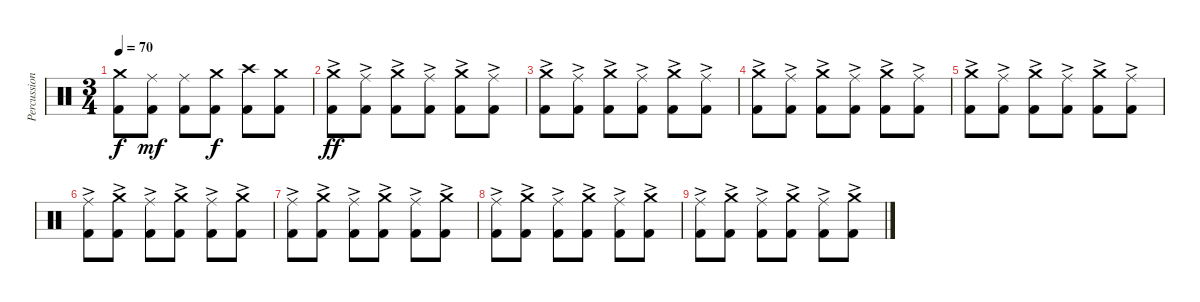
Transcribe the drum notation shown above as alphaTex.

\track ("Percussion" "Percussion") {instrument percussion}
\staff {score}
\articulation defaults
\ts (3 4)
\tempo 70
\clef neutral
\ks c
("Crash medium (hit)" "Kick (hit) 2").8{dy f} ("Ride (middle)" "Kick (hit) 2").8{dy mf} ("Ride (middle)" "Kick (hit) 2").8 ("Crash medium (hit)" "Kick (hit) 2").8{dy f} ("Crash high (hit)" "Kick (hit) 2").8 ("Crash medium (hit)" "Kick (hit) 2").8 |
("Crash medium (hit)" "Kick (hit) 2"{ac}).8{dy ff} ("Ride (middle)" "Kick (hit) 2"{ac}).8 ("Crash medium (hit)" "Kick (hit) 2"{ac}).8 ("Ride (middle)" "Kick (hit) 2"{ac}).8 ("Crash medium (hit)" "Kick (hit) 2"{ac}).8 ("Ride (middle)" "Kick (hit) 2"{ac}).8 |
("Crash medium (hit)" "Kick (hit) 2"{ac}).8 ("Ride (middle)" "Kick (hit) 2"{ac}).8 ("Crash medium (hit)" "Kick (hit) 2"{ac}).8 ("Ride (middle)" "Kick (hit) 2"{ac}).8 ("Crash medium (hit)" "Kick (hit) 2"{ac}).8 ("Ride (middle)" "Kick (hit) 2"{ac}).8 |
("Crash medium (hit)" "Kick (hit) 2"{ac}).8 ("Ride (middle)" "Kick (hit) 2"{ac}).8 ("Crash medium (hit)" "Kick (hit) 2"{ac}).8 ("Ride (middle)" "Kick (hit) 2"{ac}).8 ("Crash medium (hit)" "Kick (hit) 2"{ac}).8 ("Ride (middle)" "Kick (hit) 2"{ac}).8 |
("Crash medium (hit)" "Kick (hit) 2"{ac}).8 ("Ride (middle)" "Kick (hit) 2"{ac}).8 ("Crash medium (hit)" "Kick (hit) 2"{ac}).8 ("Ride (middle)" "Kick (hit) 2"{ac}).8 ("Crash medium (hit)" "Kick (hit) 2"{ac}).8 ("Ride (middle)" "Kick (hit) 2"{ac}).8 |
("Ride (middle)" "Kick (hit) 2"{ac}).8 ("Crash medium (hit)" "Kick (hit) 2"{ac}).8 ("Ride (middle)" "Kick (hit) 2"{ac}).8 ("Crash medium (hit)" "Kick (hit) 2"{ac}).8 ("Ride (middle)" "Kick (hit) 2"{ac}).8 ("Crash medium (hit)" "Kick (hit) 2"{ac}).8 |
("Ride (middle)" "Kick (hit) 2"{ac}).8 ("Crash medium (hit)" "Kick (hit) 2"{ac}).8 ("Ride (middle)" "Kick (hit) 2"{ac}).8 ("Crash medium (hit)" "Kick (hit) 2"{ac}).8 ("Ride (middle)" "Kick (hit) 2"{ac}).8 ("Crash medium (hit)" "Kick (hit) 2"{ac}).8 |
("Ride (middle)" "Kick (hit) 2"{ac}).8 ("Crash medium (hit)"{ac} "Kick (hit) 2"{ac}).8 ("Ride (middle)" "Kick (hit) 2"{ac}).8 ("Crash medium (hit)"{ac} "Kick (hit) 2"{ac}).8 ("Ride (middle)" "Kick (hit) 2"{ac}).8 ("Crash medium (hit)"{ac} "Kick (hit) 2"{ac}).8 |
("Ride (middle)" "Kick (hit) 2"{ac}).8 ("Crash medium (hit)"{ac} "Kick (hit) 2"{ac}).8 ("Ride (middle)" "Kick (hit) 2"{ac}).8 ("Crash medium (hit)"{ac} "Kick (hit) 2"{ac}).8 ("Ride (middle)" "Kick (hit) 2"{ac}).8 ("Crash medium (hit)"{ac} "Kick (hit) 2"{ac}).8
